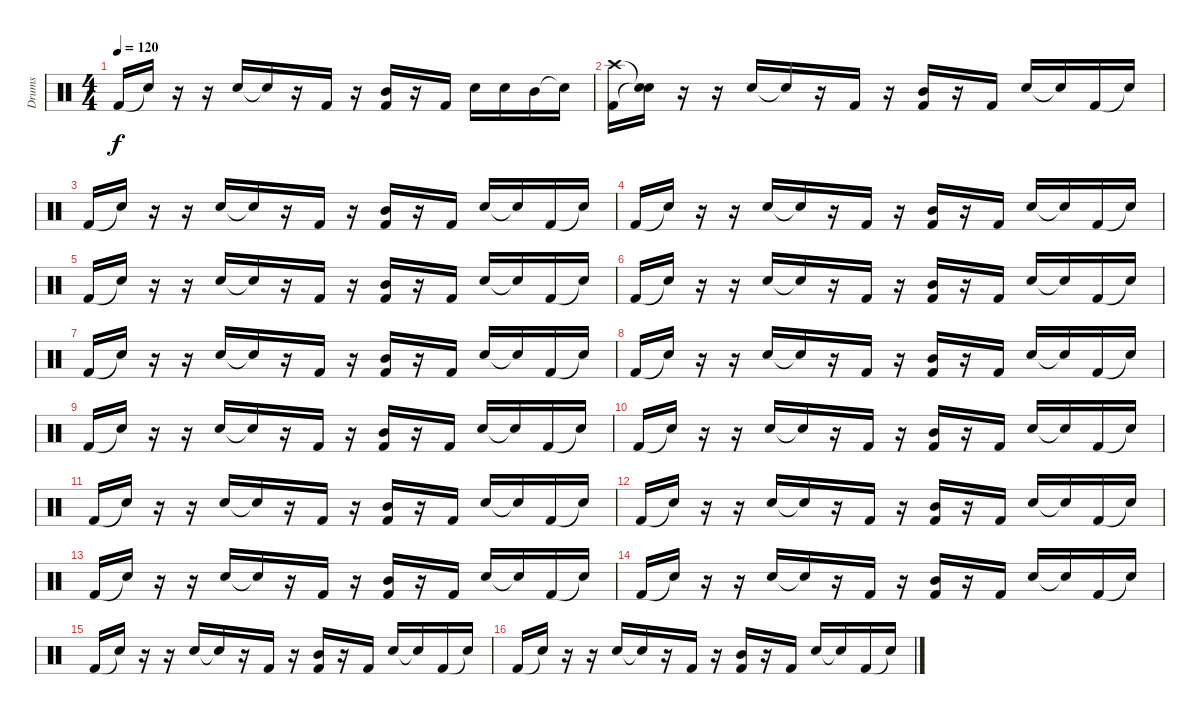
\track ("Drums" "Drums") {instrument percussion}
\staff {score}
\articulation defaults
\ts (4 4)
\tempo 120
\clef neutral
\ks c "Kick (hit) 2".16{dy f} "Snare (hit)"{t}.16
r.16 r.16 "Snare (hit) 2".16 "Snare (hit)"{t}.16 r.16 "Kick (hit) 2".16 r.16 ("Mid Tom (hit)" "Kick (hit) 2").16 r.16 "Kick (hit) 2".16 "Snare (hit) 2".16 "Snare (hit) 2".16 "Mid Tom (hit)".16 "Snare (hit)"{t}.16 |
("Crash high (hit)" "Kick (hit) 2").16 ("Snare (hit)"{t} "Snare (hit)"{t}).16 r.16 r.16 "Snare (hit) 2".16 "Snare (hit)"{t}.16 r.16 "Kick (hit) 2".16 r.16 ("Mid Tom (hit)" "Kick (hit) 2").16 r.16 "Kick (hit) 2".16 "Snare (hit) 2".16 "Snare (hit)"{t}.16 "Kick (hit) 2".16 "Snare (hit)"{t}.16 |
"Kick (hit) 2".16 "Snare (hit)"{t}.16 r.16 r.16 "Snare (hit) 2".16 "Snare (hit)"{t}.16 r.16 "Kick (hit) 2".16 r.16 ("Mid Tom (hit)" "Kick (hit) 2").16 r.16 "Kick (hit) 2".16 "Snare (hit) 2".16 "Snare (hit)"{t}.16 "Kick (hit) 2".16 "Snare (hit)"{t}.16 |
"Kick (hit) 2".16 "Snare (hit)"{t}.16 r.16 r.16 "Snare (hit) 2".16 "Snare (hit)"{t}.16 r.16 "Kick (hit) 2".16 r.16 ("Mid Tom (hit)" "Kick (hit) 2").16 r.16 "Kick (hit) 2".16 "Snare (hit) 2".16 "Snare (hit)"{t}.16 "Kick (hit) 2".16 "Snare (hit)"{t}.16 |
"Kick (hit) 2".16 "Snare (hit)"{t}.16 r.16 r.16 "Snare (hit) 2".16 "Snare (hit)"{t}.16 r.16 "Kick (hit) 2".16 r.16 ("Mid Tom (hit)" "Kick (hit) 2").16 r.16 "Kick (hit) 2".16 "Snare (hit) 2".16 "Snare (hit)"{t}.16 "Kick (hit) 2".16 "Snare (hit)"{t}.16 |
"Kick (hit) 2".16 "Snare (hit)"{t}.16 r.16 r.16 "Snare (hit) 2".16 "Snare (hit)"{t}.16 r.16 "Kick (hit) 2".16 r.16 ("Mid Tom (hit)" "Kick (hit) 2").16 r.16 "Kick (hit) 2".16 "Snare (hit) 2".16 "Snare (hit)"{t}.16 "Kick (hit) 2".16 "Snare (hit)"{t}.16 |
"Kick (hit) 2".16 "Snare (hit)"{t}.16 r.16 r.16 "Snare (hit) 2".16 "Snare (hit)"{t}.16 r.16 "Kick (hit) 2".16 r.16 ("Mid Tom (hit)" "Kick (hit) 2").16 r.16 "Kick (hit) 2".16 "Snare (hit) 2".16 "Snare (hit)"{t}.16 "Kick (hit) 2".16 "Snare (hit)"{t}.16 |
"Kick (hit) 2".16 "Snare (hit)"{t}.16 r.16 r.16 "Snare (hit) 2".16 "Snare (hit)"{t}.16 r.16 "Kick (hit) 2".16 r.16 ("Mid Tom (hit)" "Kick (hit) 2").16 r.16 "Kick (hit) 2".16 "Snare (hit) 2".16 "Snare (hit)"{t}.16 "Kick (hit) 2".16 "Snare (hit)"{t}.16 |
"Kick (hit) 2".16 "Snare (hit)"{t}.16 r.16 r.16 "Snare (hit) 2".16 "Snare (hit)"{t}.16 r.16 "Kick (hit) 2".16 r.16 ("Mid Tom (hit)" "Kick (hit) 2").16 r.16 "Kick (hit) 2".16 "Snare (hit) 2".16 "Snare (hit)"{t}.16 "Kick (hit) 2".16 "Snare (hit)"{t}.16 |
"Kick (hit) 2".16 "Snare (hit)"{t}.16 r.16 r.16 "Snare (hit) 2".16 "Snare (hit)"{t}.16 r.16 "Kick (hit) 2".16 r.16 ("Mid Tom (hit)" "Kick (hit) 2").16 r.16 "Kick (hit) 2".16 "Snare (hit) 2".16 "Snare (hit)"{t}.16 "Kick (hit) 2".16 "Snare (hit)"{t}.16 |
"Kick (hit) 2".16 "Snare (hit)"{t}.16 r.16 r.16 "Snare (hit) 2".16 "Snare (hit)"{t}.16 r.16 "Kick (hit) 2".16 r.16 ("Mid Tom (hit)" "Kick (hit) 2").16 r.16 "Kick (hit) 2".16 "Snare (hit) 2".16 "Snare (hit)"{t}.16 "Kick (hit) 2".16 "Snare (hit)"{t}.16 |
"Kick (hit) 2".16 "Snare (hit)"{t}.16 r.16 r.16 "Snare (hit) 2".16 "Snare (hit)"{t}.16 r.16 "Kick (hit) 2".16 r.16 ("Mid Tom (hit)" "Kick (hit) 2").16 r.16 "Kick (hit) 2".16 "Snare (hit) 2".16 "Snare (hit)"{t}.16 "Kick (hit) 2".16 "Snare (hit)"{t}.16 |
"Kick (hit) 2".16 "Snare (hit)"{t}.16 r.16 r.16 "Snare (hit) 2".16 "Snare (hit)"{t}.16 r.16 "Kick (hit) 2".16 r.16 ("Mid Tom (hit)" "Kick (hit) 2").16 r.16 "Kick (hit) 2".16 "Snare (hit) 2".16 "Snare (hit)"{t}.16 "Kick (hit) 2".16 "Snare (hit)"{t}.16 |
"Kick (hit) 2".16 "Snare (hit)"{t}.16 r.16 r.16 "Snare (hit) 2".16 "Snare (hit)"{t}.16 r.16 "Kick (hit) 2".16 r.16 ("Mid Tom (hit)" "Kick (hit) 2").16 r.16 "Kick (hit) 2".16 "Snare (hit) 2".16 "Snare (hit)"{t}.16 "Kick (hit) 2".16 "Snare (hit)"{t}.16 |
"Kick (hit) 2".16 "Snare (hit)"{t}.16 r.16 r.16 "Snare (hit) 2".16 "Snare (hit)"{t}.16 r.16 "Kick (hit) 2".16 r.16 ("Mid Tom (hit)" "Kick (hit) 2").16 r.16 "Kick (hit) 2".16 "Snare (hit) 2".16 "Snare (hit)"{t}.16 "Kick (hit) 2".16 "Snare (hit)"{t}.16 |
"Kick (hit) 2".16 "Snare (hit)"{t}.16 r.16 r.16 "Snare (hit) 2".16 "Snare (hit)"{t}.16 r.16 "Kick (hit) 2".16 r.16 ("Mid Tom (hit)" "Kick (hit) 2").16 r.16 "Kick (hit) 2".16 "Snare (hit) 2".16 "Snare (hit)"{t}.16 "Kick (hit) 2".16 "Snare (hit)"{t}.16
